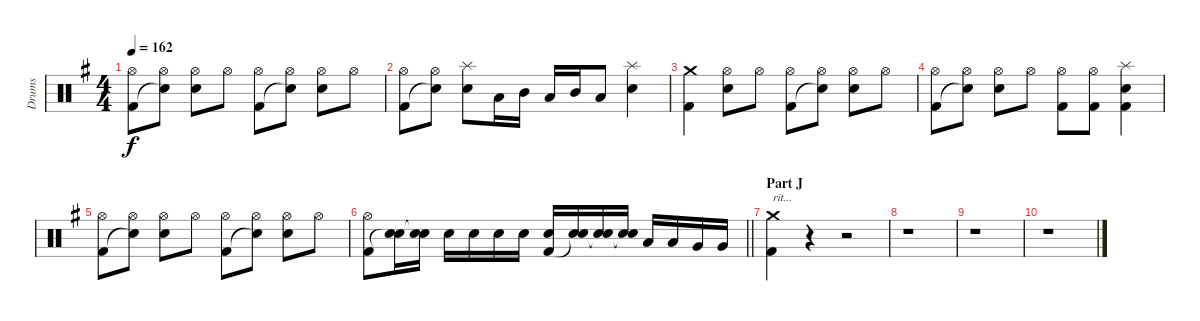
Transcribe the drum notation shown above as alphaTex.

\track ("Drums" "Drums") {instrument percussion}
\staff {score}
\articulation defaults
\ts (4 4)
\tempo 162
\clef neutral
\ks g
("Hi-Hat (open)" "Kick (hit) 2").8{dy f} ("Hi-Hat (open)" "Snare (hit)"{t}).8 ("Hi-Hat (open)" "Electric Snare (hit)").8 "Hi-Hat (open)".8 ("Hi-Hat (open)" "Kick (hit) 2").8 ("Hi-Hat (open)" "Snare (hit)"{t}).8 ("Hi-Hat (open)" "Electric Snare (hit)").8 "Hi-Hat (open)".8 |
("Hi-Hat (open)" "Kick (hit) 2").8 ("Hi-Hat (open)" "Snare (hit)"{t}).8 ("Splash (hit)" "Electric Snare (hit)").8 "Low Tom (hit)".16 "Mid Tom (hit)".16 "Low Tom (hit)".16 "Mid Tom (hit)".16 "Low Tom (hit)".8 ("Splash (hit)" "Electric Snare (hit)").4 |
("Crash medium (hit)" "Kick (hit) 2").4 ("Hi-Hat (open)" "Electric Snare (hit)").8 "Hi-Hat (open)".8 ("Hi-Hat (open)" "Kick (hit) 2").8 ("Hi-Hat (open)" "Snare (hit)"{t}).8 ("Hi-Hat (open)" "Electric Snare (hit)").8 "Hi-Hat (open)".8 |
("Hi-Hat (open)" "Kick (hit) 2").8 ("Hi-Hat (open)" "Snare (hit)"{t}).8 ("Hi-Hat (open)" "Electric Snare (hit)").8 "Hi-Hat (open)".8 ("Hi-Hat (open)" "Kick (hit) 2").8 ("Hi-Hat (open)" "Kick (hit) 2").8 ("Splash (hit)" "Electric Snare (hit)" "Kick (hit) 2").4 |
("Hi-Hat (open)" "Kick (hit) 2").8 ("Hi-Hat (open)" "Snare (hit)"{t}).8 ("Hi-Hat (open)" "Electric Snare (hit)").8 "Hi-Hat (open)".8 ("Hi-Hat (open)" "Kick (hit) 2").8 ("Hi-Hat (open)" "Snare (hit)"{t}).8 ("Hi-Hat (open)" "Electric Snare (hit)").8 "Hi-Hat (open)".8 |
\barLineRight lightlight
("Hi-Hat (open)" "Kick (hit) 2").8 ("Electric Snare (hit)" "Snare (hit)"{t}).16 ("Electric Snare (hit)" "Snare (hit)"{t}).16 "Electric Snare (hit)".16 "Electric Snare (hit)".16 "Electric Snare (hit)".16 "Electric Snare (hit)".16 ("Electric Snare (hit)" "Kick (hit) 2").16 ("Electric Snare (hit)" "Snare (hit)"{t}).16 ("Electric Snare (hit)" "Snare (hit)"{t}).16 ("Electric Snare (hit)" "Snare (hit)"{t}).16 "Low Tom (hit)".16 "Low Tom (hit)".16 "Very Low Tom (hit)".16 "Very Low Tom (hit)".16 |
\section ("" "Part J")
("Crash medium (hit)" "Kick (hit) 2").4{txt "rit..."} r.4 r.2 |
r.1 |
r.1 |
r.1
